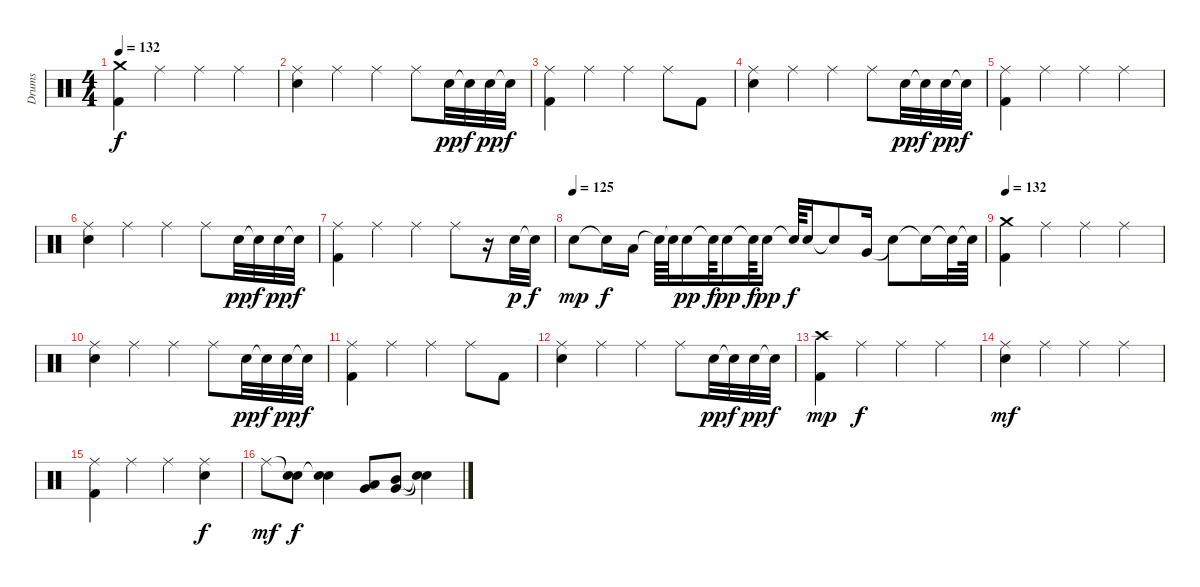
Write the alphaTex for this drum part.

\track ("Drums" "Drums") {instrument percussion}
\staff {score}
\articulation defaults
\ts (4 4)
\tempo 132
\clef neutral
\ks c
("Crash medium (hit)" "Kick (hit) 2").4{dy f} "Ride (middle)".4 "Ride (middle)".4 "Ride (middle)".4 |
("Ride (middle)" "Electric Snare (hit)").4 "Ride (middle)".4 "Ride (middle)".4 "Ride (middle)".8 "Electric Snare (hit)".32{dy pp} "Snare (hit)"{t}.32{dy f} "Electric Snare (hit)".32{dy pp} "Snare (hit)"{t}.32{dy f} |
("Ride (middle)" "Kick (hit) 2").4 "Ride (middle)".4 "Ride (middle)".4 "Ride (middle)".8 "Kick (hit) 2".8 |
("Ride (middle)" "Electric Snare (hit)").4 "Ride (middle)".4 "Ride (middle)".4 "Ride (middle)".8 "Electric Snare (hit)".32{dy pp} "Snare (hit)"{t}.32{dy f} "Electric Snare (hit)".32{dy pp} "Snare (hit)"{t}.32{dy f} |
("Ride (middle)" "Kick (hit) 2").4 "Ride (middle)".4 "Ride (middle)".4 "Ride (middle)".4 |
("Ride (middle)" "Electric Snare (hit)").4 "Ride (middle)".4 "Ride (middle)".4 "Ride (middle)".8 "Electric Snare (hit)".32{dy pp} "Snare (hit)"{t}.32{dy f} "Electric Snare (hit)".32{dy pp} "Snare (hit)"{t}.32{dy f} |
("Ride (middle)" "Kick (hit) 2").4 "Ride (middle)".4 "Ride (middle)".4 "Ride (middle)".8 r.16 "Electric Snare (hit)".32{dy p} "Snare (hit)"{t}.32{dy f} |
\tempo (125)
"Electric Snare (hit)".8{dy mp} "Snare (hit)"{t}.16{dy f} "Low Tom (hit)".16 "Snare (hit)"{t}.64 "Snare (hit)"{t}.64 "Electric Snare (hit)".16{dy pp} "Snare (hit)"{t}.64{dy f} "Electric Snare (hit)".16{dy pp} "Snare (hit)"{t}.64{dy f} "Electric Snare (hit)".16{dy pp} "Snare (hit)"{t}.64{dy f} "Electric Snare (hit)".16 "Snare (hit)"{t}.8 "Very Low Tom (hit)".16 "Snare (hit)"{t}.8 "Snare (hit)"{t}.16 "Snare (hit)"{t}.32 "Snare (hit)"{t}.64 |
\tempo 132
("Crash medium (hit)" "Kick (hit) 2").4 "Ride (middle)".4 "Ride (middle)".4 "Ride (middle)".4 |
("Ride (middle)" "Electric Snare (hit)").4 "Ride (middle)".4 "Ride (middle)".4 "Ride (middle)".8 "Electric Snare (hit)".32{dy pp} "Snare (hit)"{t}.32{dy f} "Electric Snare (hit)".32{dy pp} "Snare (hit)"{t}.32{dy f} |
("Ride (middle)" "Kick (hit) 2").4 "Ride (middle)".4 "Ride (middle)".4 "Ride (middle)".8 "Kick (hit) 2".8 |
("Ride (middle)" "Electric Snare (hit)").4 "Ride (middle)".4 "Ride (middle)".4 "Ride (middle)".8 "Electric Snare (hit)".32{dy pp} "Snare (hit)"{t}.32{dy f} "Electric Snare (hit)".32{dy pp} "Snare (hit)"{t}.32{dy f} |
("Crash high (hit)" "Kick (hit) 2").4{dy mp} "Ride (middle)".4{dy f} "Ride (middle)".4 "Ride (middle)".4 |
("Ride (middle)" "Electric Snare (hit)").4{dy mf} "Ride (middle)".4 "Ride (middle)".4 "Ride (middle)".4 |
("Ride (middle)" "Kick (hit) 2").4 "Ride (middle)".4 "Ride (middle)".4 ("Ride (middle)" "Electric Snare (hit)").4{dy f} |
"Ride (middle)".8{dy mf} ("Snare (hit)"{t} "Electric Snare (hit)").8{dy f} ("Snare (hit)"{t} "Electric Snare (hit)").4 ("Low Tom (hit)" "Very Low Tom (hit)").8 ("Mid Tom (hit)" "Very Low Tom (hit)").8 ("Snare (hit)"{t} "Snare (hit)"{t}).4
